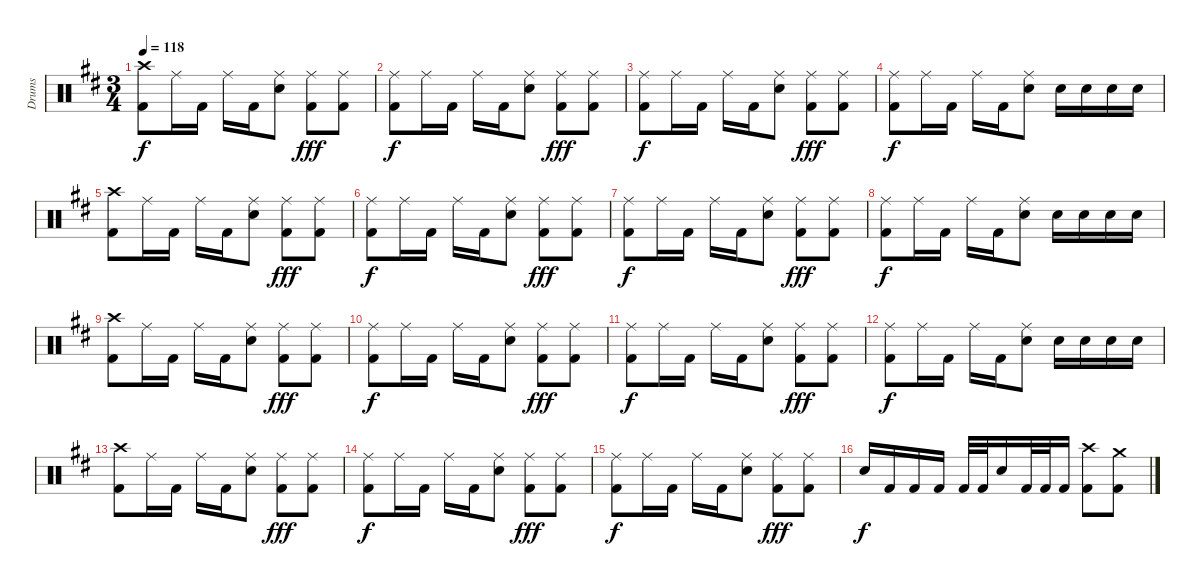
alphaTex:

\track ("Drums" "Drums") {instrument percussion}
\staff {score}
\articulation defaults
\ts (3 4)
\tempo 118
\clef neutral
\ks bminor
("Crash high (hit)" "Kick (hit) 2").8{dy f} "Ride (middle)".16 "Kick (hit) 2".16 "Ride (middle)".16 "Kick (hit) 2".16 ("Ride (middle)" "Snare (hit) 2").8 ("Ride (middle)" "Kick (hit) 2").8{dy fff} ("Ride (middle)" "Kick (hit) 2").8 |
("Ride (middle)" "Kick (hit) 2").8{dy f} "Ride (middle)".16 "Kick (hit) 2".16 "Ride (middle)".16 "Kick (hit) 2".16 ("Ride (middle)" "Snare (hit) 2").8 ("Ride (middle)" "Kick (hit) 2").8{dy fff} ("Ride (middle)" "Kick (hit) 2").8 |
("Ride (middle)" "Kick (hit) 2").8{dy f} "Ride (middle)".16 "Kick (hit) 2".16 "Ride (middle)".16 "Kick (hit) 2".16 ("Ride (middle)" "Snare (hit) 2").8 ("Ride (middle)" "Kick (hit) 2").8{dy fff} ("Ride (middle)" "Kick (hit) 2").8 |
("Ride (middle)" "Kick (hit) 2").8{dy f} "Ride (middle)".16 "Kick (hit) 2".16 "Ride (middle)".16 "Kick (hit) 2".16 ("Ride (middle)" "Snare (hit) 2").8 "Snare (hit) 2".16 "Snare (hit) 2".16 "Snare (hit) 2".16 "Snare (hit) 2".16 |
("Crash high (hit)" "Kick (hit) 2").8 "Ride (middle)".16 "Kick (hit) 2".16 "Ride (middle)".16 "Kick (hit) 2".16 ("Ride (middle)" "Snare (hit) 2").8 ("Ride (middle)" "Kick (hit) 2").8{dy fff} ("Ride (middle)" "Kick (hit) 2").8 |
("Ride (middle)" "Kick (hit) 2").8{dy f} "Ride (middle)".16 "Kick (hit) 2".16 "Ride (middle)".16 "Kick (hit) 2".16 ("Ride (middle)" "Snare (hit) 2").8 ("Ride (middle)" "Kick (hit) 2").8{dy fff} ("Ride (middle)" "Kick (hit) 2").8 |
("Ride (middle)" "Kick (hit) 2").8{dy f} "Ride (middle)".16 "Kick (hit) 2".16 "Ride (middle)".16 "Kick (hit) 2".16 ("Ride (middle)" "Snare (hit) 2").8 ("Ride (middle)" "Kick (hit) 2").8{dy fff} ("Ride (middle)" "Kick (hit) 2").8 |
("Ride (middle)" "Kick (hit) 2").8{dy f} "Ride (middle)".16 "Kick (hit) 2".16 "Ride (middle)".16 "Kick (hit) 2".16 ("Ride (middle)" "Snare (hit) 2").8 "Snare (hit) 2".16 "Snare (hit) 2".16 "Snare (hit) 2".16 "Snare (hit) 2".16 |
("Crash high (hit)" "Kick (hit) 2").8 "Ride (middle)".16 "Kick (hit) 2".16 "Ride (middle)".16 "Kick (hit) 2".16 ("Ride (middle)" "Snare (hit) 2").8 ("Ride (middle)" "Kick (hit) 2").8{dy fff} ("Ride (middle)" "Kick (hit) 2").8 |
("Ride (middle)" "Kick (hit) 2").8{dy f} "Ride (middle)".16 "Kick (hit) 2".16 "Ride (middle)".16 "Kick (hit) 2".16 ("Ride (middle)" "Snare (hit) 2").8 ("Ride (middle)" "Kick (hit) 2").8{dy fff} ("Ride (middle)" "Kick (hit) 2").8 |
("Ride (middle)" "Kick (hit) 2").8{dy f} "Ride (middle)".16 "Kick (hit) 2".16 "Ride (middle)".16 "Kick (hit) 2".16 ("Ride (middle)" "Snare (hit) 2").8 ("Ride (middle)" "Kick (hit) 2").8{dy fff} ("Ride (middle)" "Kick (hit) 2").8 |
("Ride (middle)" "Kick (hit) 2").8{dy f} "Ride (middle)".16 "Kick (hit) 2".16 "Ride (middle)".16 "Kick (hit) 2".16 ("Ride (middle)" "Snare (hit) 2").8 "Snare (hit) 2".16 "Snare (hit) 2".16 "Snare (hit) 2".16 "Snare (hit) 2".16 |
("Crash high (hit)" "Kick (hit) 2").8 "Ride (middle)".16 "Kick (hit) 2".16 "Ride (middle)".16 "Kick (hit) 2".16 ("Ride (middle)" "Snare (hit) 2").8 ("Ride (middle)" "Kick (hit) 2").8{dy fff} ("Ride (middle)" "Kick (hit) 2").8 |
("Ride (middle)" "Kick (hit) 2").8{dy f} "Ride (middle)".16 "Kick (hit) 2".16 "Ride (middle)".16 "Kick (hit) 2".16 ("Ride (middle)" "Snare (hit) 2").8 ("Ride (middle)" "Kick (hit) 2").8{dy fff} ("Ride (middle)" "Kick (hit) 2").8 |
("Ride (middle)" "Kick (hit) 2").8{dy f} "Ride (middle)".16 "Kick (hit) 2".16 "Ride (middle)".16 "Kick (hit) 2".16 ("Ride (middle)" "Snare (hit) 2").8 ("Ride (middle)" "Kick (hit) 2").8{dy fff} ("Ride (middle)" "Kick (hit) 2").8 |
"Snare (hit) 2".16{dy f} "Kick (hit) 2".16 "Kick (hit) 2".16 "Kick (hit) 2".16 "Kick (hit) 2".32 "Kick (hit) 2".32 "Snare (hit) 2".16 "Kick (hit) 2".32 "Kick (hit) 2".32 "Kick (hit) 2".16 ("Crash high (hit)" "Kick (hit) 2").8 ("Crash medium (hit)" "Kick (hit) 2").8
